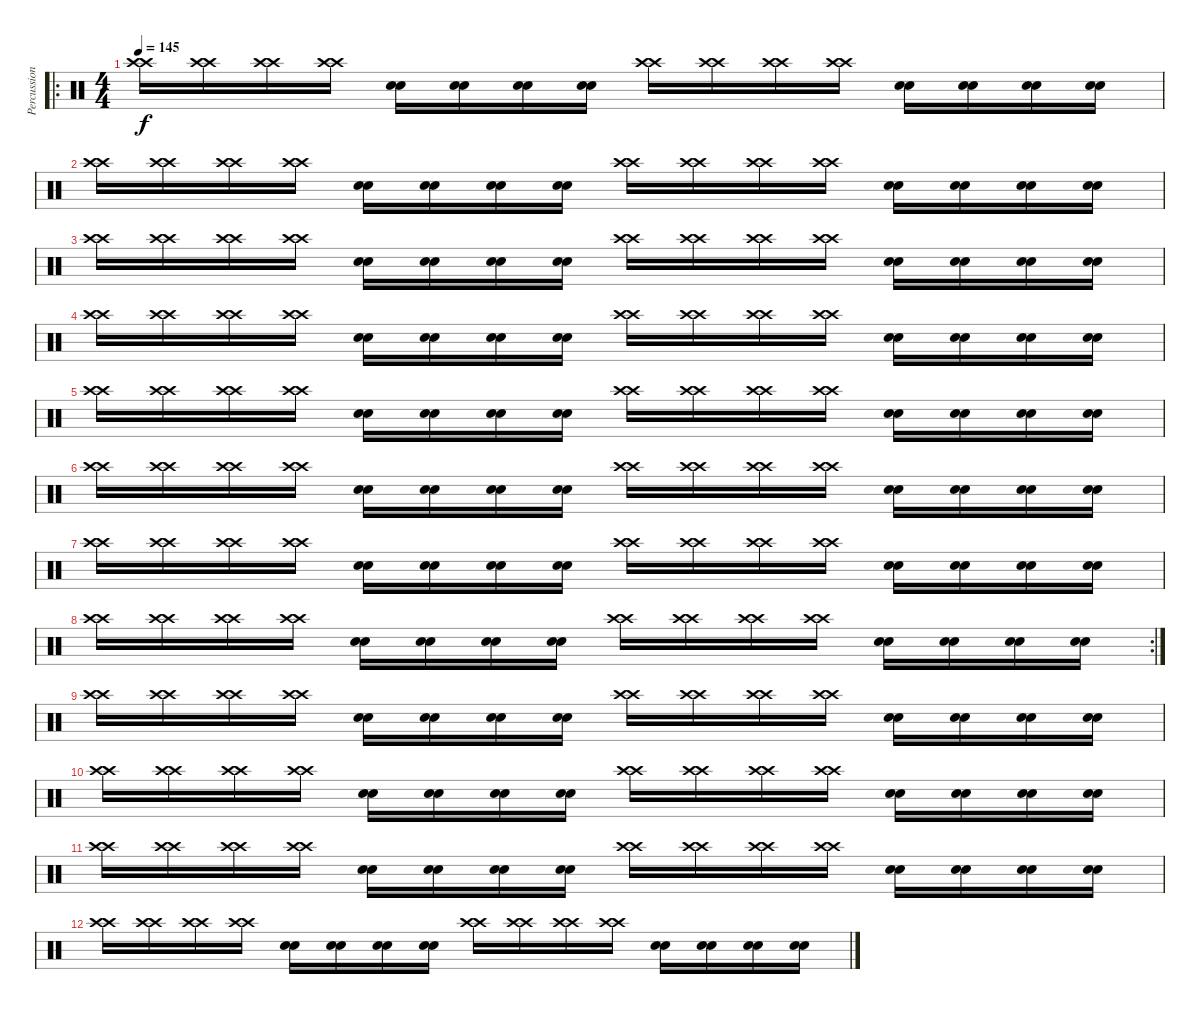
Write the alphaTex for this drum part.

\track ("Percussions" "Percussion") {instrument percussion}
\staff {score}
\articulation defaults
\ro
\ts (4 4)
\tempo 145
\clef neutral
\ks c
("Crash high (hit)" "Crash high (hit)").16{dy f} ("Crash high (hit)" "Crash high (hit)").16 ("Crash high (hit)" "Crash high (hit)").16 ("Crash high (hit)" "Crash high (hit)").16 ("Snare (hit) 2" "Snare (hit) 2").16 ("Snare (hit) 2" "Snare (hit) 2").16 ("Snare (hit) 2" "Snare (hit) 2").16 ("Snare (hit) 2" "Snare (hit) 2").16 ("Crash high (hit)" "Crash high (hit)").16 ("Crash high (hit)" "Crash high (hit)").16 ("Crash high (hit)" "Crash high (hit)").16 ("Crash high (hit)" "Crash high (hit)").16 ("Snare (hit) 2" "Snare (hit) 2").16 ("Snare (hit) 2" "Snare (hit) 2").16 ("Snare (hit) 2" "Snare (hit) 2").16 ("Snare (hit) 2" "Snare (hit) 2").16 |
("Crash high (hit)" "Crash high (hit)").16 ("Crash high (hit)" "Crash high (hit)").16 ("Crash high (hit)" "Crash high (hit)").16 ("Crash high (hit)" "Crash high (hit)").16 ("Snare (hit) 2" "Snare (hit) 2").16 ("Snare (hit) 2" "Snare (hit) 2").16 ("Snare (hit) 2" "Snare (hit) 2").16 ("Snare (hit) 2" "Snare (hit) 2").16 ("Crash high (hit)" "Crash high (hit)").16 ("Crash high (hit)" "Crash high (hit)").16 ("Crash high (hit)" "Crash high (hit)").16 ("Crash high (hit)" "Crash high (hit)").16 ("Snare (hit) 2" "Snare (hit) 2").16 ("Snare (hit) 2" "Snare (hit) 2").16 ("Snare (hit) 2" "Snare (hit) 2").16 ("Snare (hit) 2" "Snare (hit) 2").16 |
("Crash high (hit)" "Crash high (hit)").16 ("Crash high (hit)" "Crash high (hit)").16 ("Crash high (hit)" "Crash high (hit)").16 ("Crash high (hit)" "Crash high (hit)").16 ("Snare (hit) 2" "Snare (hit) 2").16 ("Snare (hit) 2" "Snare (hit) 2").16 ("Snare (hit) 2" "Snare (hit) 2").16 ("Snare (hit) 2" "Snare (hit) 2").16 ("Crash high (hit)" "Crash high (hit)").16 ("Crash high (hit)" "Crash high (hit)").16 ("Crash high (hit)" "Crash high (hit)").16 ("Crash high (hit)" "Crash high (hit)").16 ("Snare (hit) 2" "Snare (hit) 2").16 ("Snare (hit) 2" "Snare (hit) 2").16 ("Snare (hit) 2" "Snare (hit) 2").16 ("Snare (hit) 2" "Snare (hit) 2").16 |
("Crash high (hit)" "Crash high (hit)").16 ("Crash high (hit)" "Crash high (hit)").16 ("Crash high (hit)" "Crash high (hit)").16 ("Crash high (hit)" "Crash high (hit)").16 ("Snare (hit) 2" "Snare (hit) 2").16 ("Snare (hit) 2" "Snare (hit) 2").16 ("Snare (hit) 2" "Snare (hit) 2").16 ("Snare (hit) 2" "Snare (hit) 2").16 ("Crash high (hit)" "Crash high (hit)").16 ("Crash high (hit)" "Crash high (hit)").16 ("Crash high (hit)" "Crash high (hit)").16 ("Crash high (hit)" "Crash high (hit)").16 ("Snare (hit) 2" "Snare (hit) 2").16 ("Snare (hit) 2" "Snare (hit) 2").16 ("Snare (hit) 2" "Snare (hit) 2").16 ("Snare (hit) 2" "Snare (hit) 2").16 |
("Crash high (hit)" "Crash high (hit)").16 ("Crash high (hit)" "Crash high (hit)").16 ("Crash high (hit)" "Crash high (hit)").16 ("Crash high (hit)" "Crash high (hit)").16 ("Snare (hit) 2" "Snare (hit) 2").16 ("Snare (hit) 2" "Snare (hit) 2").16 ("Snare (hit) 2" "Snare (hit) 2").16 ("Snare (hit) 2" "Snare (hit) 2").16 ("Crash high (hit)" "Crash high (hit)").16 ("Crash high (hit)" "Crash high (hit)").16 ("Crash high (hit)" "Crash high (hit)").16 ("Crash high (hit)" "Crash high (hit)").16 ("Snare (hit) 2" "Snare (hit) 2").16 ("Snare (hit) 2" "Snare (hit) 2").16 ("Snare (hit) 2" "Snare (hit) 2").16 ("Snare (hit) 2" "Snare (hit) 2").16 |
("Crash high (hit)" "Crash high (hit)").16 ("Crash high (hit)" "Crash high (hit)").16 ("Crash high (hit)" "Crash high (hit)").16 ("Crash high (hit)" "Crash high (hit)").16 ("Snare (hit) 2" "Snare (hit) 2").16 ("Snare (hit) 2" "Snare (hit) 2").16 ("Snare (hit) 2" "Snare (hit) 2").16 ("Snare (hit) 2" "Snare (hit) 2").16 ("Crash high (hit)" "Crash high (hit)").16 ("Crash high (hit)" "Crash high (hit)").16 ("Crash high (hit)" "Crash high (hit)").16 ("Crash high (hit)" "Crash high (hit)").16 ("Snare (hit) 2" "Snare (hit) 2").16 ("Snare (hit) 2" "Snare (hit) 2").16 ("Snare (hit) 2" "Snare (hit) 2").16 ("Snare (hit) 2" "Snare (hit) 2").16 |
("Crash high (hit)" "Crash high (hit)").16 ("Crash high (hit)" "Crash high (hit)").16 ("Crash high (hit)" "Crash high (hit)").16 ("Crash high (hit)" "Crash high (hit)").16 ("Snare (hit) 2" "Snare (hit) 2").16 ("Snare (hit) 2" "Snare (hit) 2").16 ("Snare (hit) 2" "Snare (hit) 2").16 ("Snare (hit) 2" "Snare (hit) 2").16 ("Crash high (hit)" "Crash high (hit)").16 ("Crash high (hit)" "Crash high (hit)").16 ("Crash high (hit)" "Crash high (hit)").16 ("Crash high (hit)" "Crash high (hit)").16 ("Snare (hit) 2" "Snare (hit) 2").16 ("Snare (hit) 2" "Snare (hit) 2").16 ("Snare (hit) 2" "Snare (hit) 2").16 ("Snare (hit) 2" "Snare (hit) 2").16 |
\rc 2
("Crash high (hit)" "Crash high (hit)").16 ("Crash high (hit)" "Crash high (hit)").16 ("Crash high (hit)" "Crash high (hit)").16 ("Crash high (hit)" "Crash high (hit)").16 ("Snare (hit) 2" "Snare (hit) 2").16 ("Snare (hit) 2" "Snare (hit) 2").16 ("Snare (hit) 2" "Snare (hit) 2").16 ("Snare (hit) 2" "Snare (hit) 2").16 ("Crash high (hit)" "Crash high (hit)").16 ("Crash high (hit)" "Crash high (hit)").16 ("Crash high (hit)" "Crash high (hit)").16 ("Crash high (hit)" "Crash high (hit)").16 ("Snare (hit) 2" "Snare (hit) 2").16 ("Snare (hit) 2" "Snare (hit) 2").16 ("Snare (hit) 2" "Snare (hit) 2").16 ("Snare (hit) 2" "Snare (hit) 2").16 |
("Crash high (hit)" "Crash high (hit)").16{volume 12} ("Crash high (hit)" "Crash high (hit)").16 ("Crash high (hit)" "Crash high (hit)").16 ("Crash high (hit)" "Crash high (hit)").16 ("Snare (hit) 2" "Snare (hit) 2").16 ("Snare (hit) 2" "Snare (hit) 2").16 ("Snare (hit) 2" "Snare (hit) 2").16 ("Snare (hit) 2" "Snare (hit) 2").16 ("Crash high (hit)" "Crash high (hit)").16{volume 11} ("Crash high (hit)" "Crash high (hit)").16 ("Crash high (hit)" "Crash high (hit)").16 ("Crash high (hit)" "Crash high (hit)").16 ("Snare (hit) 2" "Snare (hit) 2").16 ("Snare (hit) 2" "Snare (hit) 2").16 ("Snare (hit) 2" "Snare (hit) 2").16 ("Snare (hit) 2" "Snare (hit) 2").16 |
("Crash high (hit)" "Crash high (hit)").16{volume 10} ("Crash high (hit)" "Crash high (hit)").16 ("Crash high (hit)" "Crash high (hit)").16 ("Crash high (hit)" "Crash high (hit)").16 ("Snare (hit) 2" "Snare (hit) 2").16 ("Snare (hit) 2" "Snare (hit) 2").16 ("Snare (hit) 2" "Snare (hit) 2").16 ("Snare (hit) 2" "Snare (hit) 2").16 ("Crash high (hit)" "Crash high (hit)").16{volume 8} ("Crash high (hit)" "Crash high (hit)").16 ("Crash high (hit)" "Crash high (hit)").16 ("Crash high (hit)" "Crash high (hit)").16 ("Snare (hit) 2" "Snare (hit) 2").16 ("Snare (hit) 2" "Snare (hit) 2").16 ("Snare (hit) 2" "Snare (hit) 2").16 ("Snare (hit) 2" "Snare (hit) 2").16 |
("Crash high (hit)" "Crash high (hit)").16{volume 7} ("Crash high (hit)" "Crash high (hit)").16 ("Crash high (hit)" "Crash high (hit)").16 ("Crash high (hit)" "Crash high (hit)").16 ("Snare (hit) 2" "Snare (hit) 2").16 ("Snare (hit) 2" "Snare (hit) 2").16 ("Snare (hit) 2" "Snare (hit) 2").16 ("Snare (hit) 2" "Snare (hit) 2").16 ("Crash high (hit)" "Crash high (hit)").16{volume 6} ("Crash high (hit)" "Crash high (hit)").16 ("Crash high (hit)" "Crash high (hit)").16 ("Crash high (hit)" "Crash high (hit)").16 ("Snare (hit) 2" "Snare (hit) 2").16 ("Snare (hit) 2" "Snare (hit) 2").16 ("Snare (hit) 2" "Snare (hit) 2").16 ("Snare (hit) 2" "Snare (hit) 2").16 |
("Crash high (hit)" "Crash high (hit)").16{volume 4} ("Crash high (hit)" "Crash high (hit)").16 ("Crash high (hit)" "Crash high (hit)").16 ("Crash high (hit)" "Crash high (hit)").16 ("Snare (hit) 2" "Snare (hit) 2").16 ("Snare (hit) 2" "Snare (hit) 2").16 ("Snare (hit) 2" "Snare (hit) 2").16 ("Snare (hit) 2" "Snare (hit) 2").16 ("Crash high (hit)" "Crash high (hit)").16{volume 2} ("Crash high (hit)" "Crash high (hit)").16 ("Crash high (hit)" "Crash high (hit)").16 ("Crash high (hit)" "Crash high (hit)").16 ("Snare (hit) 2" "Snare (hit) 2").16 ("Snare (hit) 2" "Snare (hit) 2").16 ("Snare (hit) 2" "Snare (hit) 2").16 ("Snare (hit) 2" "Snare (hit) 2").16
